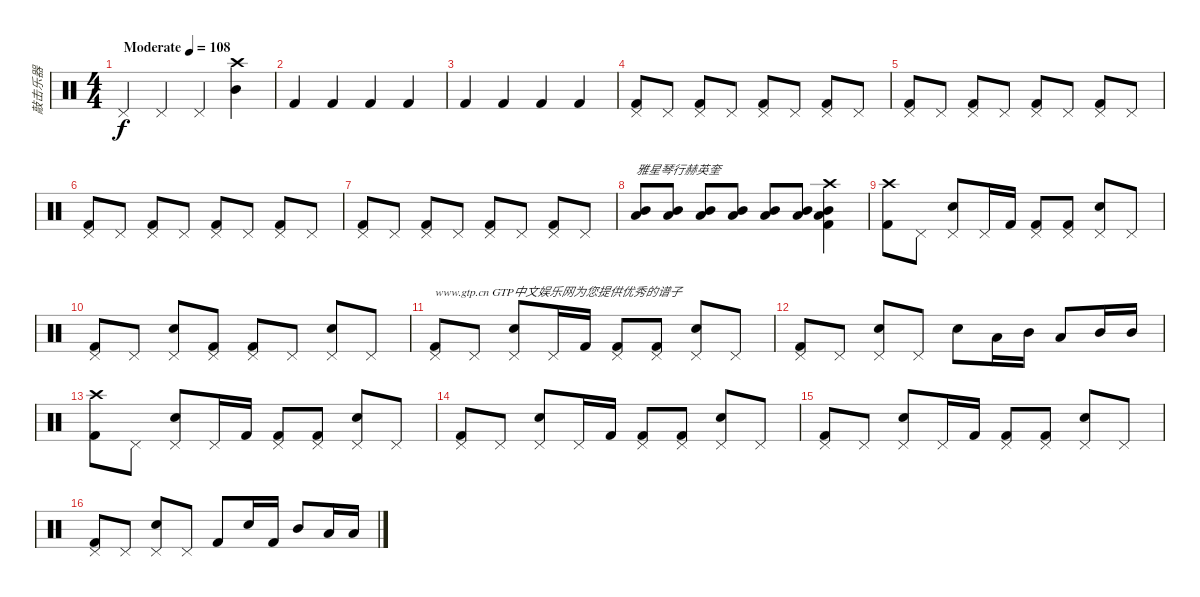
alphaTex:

\track ("敲击乐器" "敲击乐器") {instrument percussion}
\staff {score}
\articulation defaults
\ts (4 4)
\tempo (108 "Moderate")
\clef neutral
\ks c "Pedal Hi-Hat (hit)".4{dy f} "Pedal Hi-Hat (hit)".4 "Pedal Hi-Hat (hit)".4
("Crash high (hit)" "Mid Tom (hit)").4 |
"Kick (hit) 2".4 "Kick (hit) 2".4 "Kick (hit) 2".4 "Kick (hit) 2".4 |
"Kick (hit) 2".4 "Kick (hit) 2".4 "Kick (hit) 2".4 "Kick (hit) 2".4 |
("Kick (hit) 2" "Pedal Hi-Hat (hit)").8 "Pedal Hi-Hat (hit)".8 ("Kick (hit) 2" "Pedal Hi-Hat (hit)").8 "Pedal Hi-Hat (hit)".8 ("Kick (hit) 2" "Pedal Hi-Hat (hit)").8 "Pedal Hi-Hat (hit)".8 ("Kick (hit) 2" "Pedal Hi-Hat (hit)").8 "Pedal Hi-Hat (hit)".8 |
("Kick (hit) 2" "Pedal Hi-Hat (hit)").8 "Pedal Hi-Hat (hit)".8 ("Kick (hit) 2" "Pedal Hi-Hat (hit)").8 "Pedal Hi-Hat (hit)".8 ("Kick (hit) 2" "Pedal Hi-Hat (hit)").8 "Pedal Hi-Hat (hit)".8 ("Kick (hit) 2" "Pedal Hi-Hat (hit)").8 "Pedal Hi-Hat (hit)".8 |
("Kick (hit) 2" "Pedal Hi-Hat (hit)").8 "Pedal Hi-Hat (hit)".8 ("Kick (hit) 2" "Pedal Hi-Hat (hit)").8 "Pedal Hi-Hat (hit)".8 ("Kick (hit) 2" "Pedal Hi-Hat (hit)").8 "Pedal Hi-Hat (hit)".8 ("Kick (hit) 2" "Pedal Hi-Hat (hit)").8 "Pedal Hi-Hat (hit)".8 |
("Kick (hit) 2" "Pedal Hi-Hat (hit)").8 "Pedal Hi-Hat (hit)".8 ("Kick (hit) 2" "Pedal Hi-Hat (hit)").8 "Pedal Hi-Hat (hit)".8 ("Kick (hit) 2" "Pedal Hi-Hat (hit)").8 "Pedal Hi-Hat (hit)".8 ("Kick (hit) 2" "Pedal Hi-Hat (hit)").8 "Pedal Hi-Hat (hit)".8 |
("Mid Tom (hit)" "Low Tom (hit)").8{txt "雅星琴行赫英奎"} ("Mid Tom (hit)" "Low Tom (hit)").8 ("Mid Tom (hit)" "Low Tom (hit)").8 ("Mid Tom (hit)" "Low Tom (hit)").8 ("Mid Tom (hit)" "Low Tom (hit)").8 ("Mid Tom (hit)" "Low Tom (hit)").8 ("Low Tom (hit)" "Mid Tom (hit)" "Crash high (hit)" "Kick (hit) 2").4 |
("Crash high (hit)" "Kick (hit) 2").8 "Pedal Hi-Hat (hit)".8 ("Pedal Hi-Hat (hit)" "Electric Snare (hit)").8 "Pedal Hi-Hat (hit)".16 "Kick (hit) 2".16 ("Pedal Hi-Hat (hit)" "Kick (hit) 2").8 ("Pedal Hi-Hat (hit)" "Kick (hit) 2").8 ("Pedal Hi-Hat (hit)" "Electric Snare (hit)").8 "Pedal Hi-Hat (hit)".8 |
("Pedal Hi-Hat (hit)" "Kick (hit) 2").8 "Pedal Hi-Hat (hit)".8 ("Pedal Hi-Hat (hit)" "Electric Snare (hit)").8 ("Pedal Hi-Hat (hit)" "Kick (hit) 2").8 ("Pedal Hi-Hat (hit)" "Kick (hit) 2").8 "Pedal Hi-Hat (hit)".8 ("Pedal Hi-Hat (hit)" "Electric Snare (hit)").8 "Pedal Hi-Hat (hit)".8 |
("Pedal Hi-Hat (hit)" "Kick (hit) 2").8{txt "www.gtp.cn GTP中文娱乐网为您提供优秀的谱子"} "Pedal Hi-Hat (hit)".8 ("Pedal Hi-Hat (hit)" "Electric Snare (hit)").8 "Pedal Hi-Hat (hit)".16 "Kick (hit) 2".16 ("Pedal Hi-Hat (hit)" "Kick (hit) 2").8 ("Pedal Hi-Hat (hit)" "Kick (hit) 2").8 ("Pedal Hi-Hat (hit)" "Electric Snare (hit)").8 "Pedal Hi-Hat (hit)".8 |
("Pedal Hi-Hat (hit)" "Kick (hit) 2").8 "Pedal Hi-Hat (hit)".8 ("Pedal Hi-Hat (hit)" "Electric Snare (hit)").8 "Pedal Hi-Hat (hit)".8 "Electric Snare (hit)".8 "Low Tom (hit)".16 "Mid Tom (hit)".16 "Low Tom (hit)".8 "Mid Tom (hit)".16 "Mid Tom (hit)".16 |
("Crash high (hit)" "Kick (hit) 2").8 "Pedal Hi-Hat (hit)".8 ("Pedal Hi-Hat (hit)" "Electric Snare (hit)").8 "Pedal Hi-Hat (hit)".16 "Kick (hit) 2".16 ("Pedal Hi-Hat (hit)" "Kick (hit) 2").8 ("Pedal Hi-Hat (hit)" "Kick (hit) 2").8 ("Pedal Hi-Hat (hit)" "Electric Snare (hit)").8 "Pedal Hi-Hat (hit)".8 |
("Pedal Hi-Hat (hit)" "Kick (hit) 2").8 "Pedal Hi-Hat (hit)".8 ("Pedal Hi-Hat (hit)" "Electric Snare (hit)").8 "Pedal Hi-Hat (hit)".16 "Kick (hit) 2".16 ("Pedal Hi-Hat (hit)" "Kick (hit) 2").8 ("Pedal Hi-Hat (hit)" "Kick (hit) 2").8 ("Pedal Hi-Hat (hit)" "Electric Snare (hit)").8 "Pedal Hi-Hat (hit)".8 |
("Pedal Hi-Hat (hit)" "Kick (hit) 2").8 "Pedal Hi-Hat (hit)".8 ("Pedal Hi-Hat (hit)" "Electric Snare (hit)").8 "Pedal Hi-Hat (hit)".16 "Kick (hit) 2".16 ("Pedal Hi-Hat (hit)" "Kick (hit) 2").8 ("Pedal Hi-Hat (hit)" "Kick (hit) 2").8 ("Pedal Hi-Hat (hit)" "Electric Snare (hit)").8 "Pedal Hi-Hat (hit)".8 |
("Pedal Hi-Hat (hit)" "Kick (hit) 2").8 "Pedal Hi-Hat (hit)".8 ("Pedal Hi-Hat (hit)" "Electric Snare (hit)").8 "Pedal Hi-Hat (hit)".8 "Kick (hit) 2".8 "Electric Snare (hit)".16 "Kick (hit) 2".16 "Mid Tom (hit)".8 "Low Tom (hit)".16 "Low Tom (hit)".16
